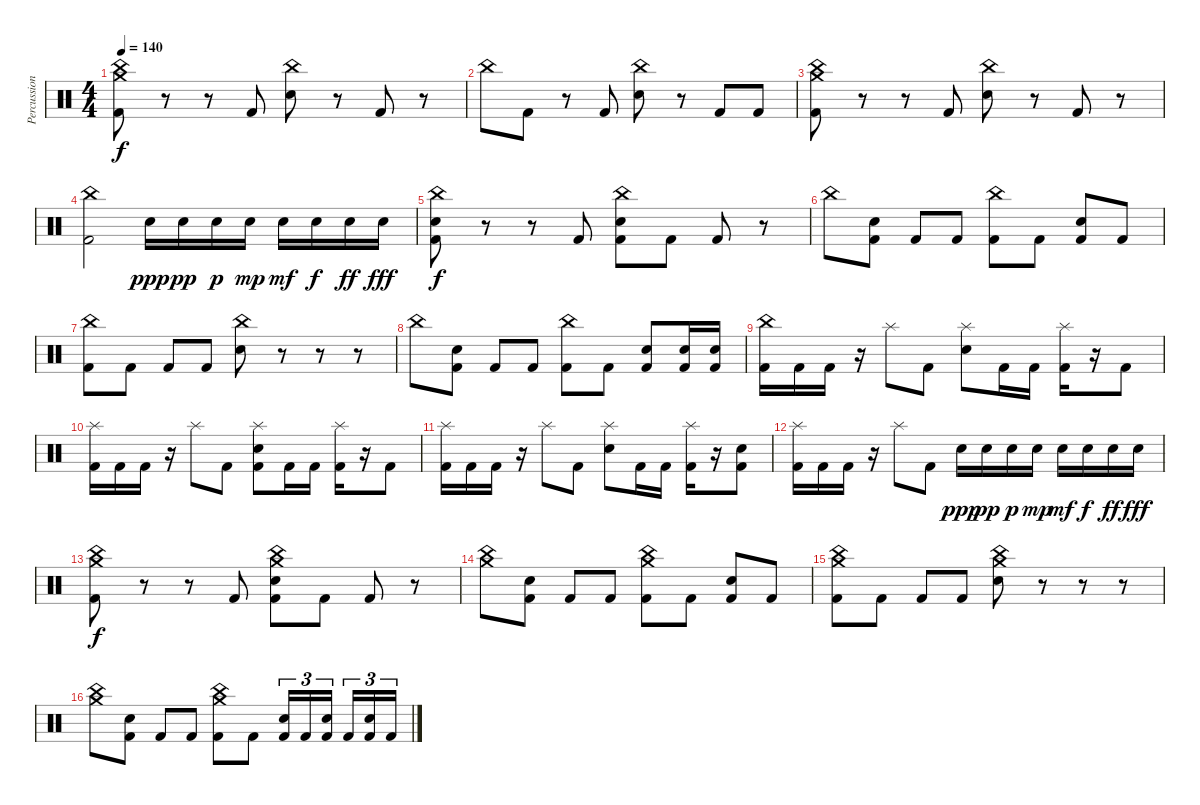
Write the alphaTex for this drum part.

\track ("Percussion" "Percussion") {instrument percussion}
\staff {score}
\articulation defaults
\ts (4 4)
\tempo 140
\clef neutral
\ks c
("China (hit)" "Crash medium (hit)" "Kick (hit) 2").8{dy f} r.8 r.8 "Kick (hit) 2".8 ("China (hit)" "Snare (hit) 2").8 r.8 "Kick (hit) 2".8 r.8 |
"China (hit)".8 "Kick (hit) 2".8 r.8 "Kick (hit) 2".8 ("China (hit)" "Snare (hit) 2").8 r.8 "Kick (hit) 2".8 "Kick (hit) 2".8 |
("China (hit)" "Crash medium (hit)" "Kick (hit) 2").8 r.8 r.8 "Kick (hit) 2".8 ("China (hit)" "Snare (hit) 2").8 r.8 "Kick (hit) 2".8 r.8 |
("China (hit)" "Kick (hit) 2").2 "Snare (hit) 2".16{dy ppp} "Snare (hit) 2".16{dy pp} "Snare (hit) 2".16{dy p} "Snare (hit) 2".16{dy mp} "Snare (hit) 2".16{dy mf} "Snare (hit) 2".16{dy f} "Snare (hit) 2".16{dy ff} "Snare (hit) 2".16{dy fff} |
("China (hit)" "Snare (hit) 2" "Kick (hit) 2").8{dy f} r.8 r.8 "Kick (hit) 2".8 ("China (hit)" "Snare (hit) 2" "Kick (hit) 2").8 "Kick (hit) 2".8 "Kick (hit) 2".8 r.8 |
"China (hit)".8 ("Snare (hit) 2" "Kick (hit) 2").8 "Kick (hit) 2".8 "Kick (hit) 2".8 ("China (hit)" "Kick (hit) 2").8 "Kick (hit) 2".8 ("Snare (hit) 2" "Kick (hit) 2").8 "Kick (hit) 2".8 |
("China (hit)" "Kick (hit) 2").8 "Kick (hit) 2".8 "Kick (hit) 2".8 "Kick (hit) 2".8 ("China (hit)" "Snare (hit) 2").8 r.8 r.8 r.8 |
"China (hit)".8 ("Snare (hit) 2" "Kick (hit) 2").8 "Kick (hit) 2".8 "Kick (hit) 2".8 ("China (hit)" "Kick (hit) 2").8 "Kick (hit) 2".8 ("Snare (hit) 2" "Kick (hit) 2").8 ("Snare (hit) 2" "Kick (hit) 2").16 ("Snare (hit) 2" "Kick (hit) 2").16 |
("China (hit)" "Kick (hit) 2").16 "Kick (hit) 2".16 "Kick (hit) 2".16 r.16 "Splash (hit)".8 "Kick (hit) 2".8 ("Splash (hit)" "Snare (hit) 2").8 "Kick (hit) 2".16 "Kick (hit) 2".16 ("Splash (hit)" "Kick (hit) 2").16 r.16 "Kick (hit) 2".8 |
("Splash (hit)" "Kick (hit) 2").16 "Kick (hit) 2".16 "Kick (hit) 2".16 r.16 "Splash (hit)".8 "Kick (hit) 2".8 ("Splash (hit)" "Snare (hit) 2" "Kick (hit) 2").8 "Kick (hit) 2".16 "Kick (hit) 2".16 ("Splash (hit)" "Kick (hit) 2").16 r.16 "Kick (hit) 2".8 |
("Splash (hit)" "Kick (hit) 2").16 "Kick (hit) 2".16 "Kick (hit) 2".16 r.16 "Splash (hit)".8 "Kick (hit) 2".8 ("Splash (hit)" "Snare (hit) 2").8 "Kick (hit) 2".16 "Kick (hit) 2".16 ("Splash (hit)" "Kick (hit) 2").16 r.16 ("Snare (hit) 2" "Kick (hit) 2").8 |
("Splash (hit)" "Kick (hit) 2").16 "Kick (hit) 2".16 "Kick (hit) 2".16 r.16 "Splash (hit)".8 "Kick (hit) 2".8 "Snare (hit) 2".16{dy ppp} "Snare (hit) 2".16{dy pp} "Snare (hit) 2".16{dy p} "Snare (hit) 2".16{dy mp} "Snare (hit) 2".16{dy mf} "Snare (hit) 2".16{dy f} "Snare (hit) 2".16{dy ff} "Snare (hit) 2".16{dy fff} |
("China (hit)" "Crash medium (hit)" "Kick (hit) 2").8{dy f} r.8 r.8 "Kick (hit) 2".8 ("China (hit)" "Crash medium (hit)" "Snare (hit) 2" "Kick (hit) 2").8 "Kick (hit) 2".8 "Kick (hit) 2".8 r.8 |
("China (hit)" "Crash medium (hit)").8 ("Snare (hit) 2" "Kick (hit) 2").8 "Kick (hit) 2".8 "Kick (hit) 2".8 ("China (hit)" "Crash medium (hit)" "Kick (hit) 2").8 "Kick (hit) 2".8 ("Snare (hit) 2" "Kick (hit) 2").8 "Kick (hit) 2".8 |
("China (hit)" "Crash medium (hit)" "Kick (hit) 2").8 "Kick (hit) 2".8 "Kick (hit) 2".8 "Kick (hit) 2".8 ("China (hit)" "Crash medium (hit)" "Snare (hit) 2").8 r.8 r.8 r.8 |
("China (hit)" "Crash medium (hit)").8 ("Snare (hit) 2" "Kick (hit) 2").8 "Kick (hit) 2".8 "Kick (hit) 2".8 ("China (hit)" "Crash medium (hit)" "Kick (hit) 2").8 "Kick (hit) 2".8 ("Snare (hit) 2" "Kick (hit) 2").16{tu (3 2)} "Kick (hit) 2".16{tu (3 2)} ("Snare (hit) 2" "Kick (hit) 2").16{tu (3 2)} "Kick (hit) 2".16{tu (3 2)} ("Snare (hit) 2" "Kick (hit) 2").16{tu (3 2)} "Kick (hit) 2".16{tu (3 2)}
